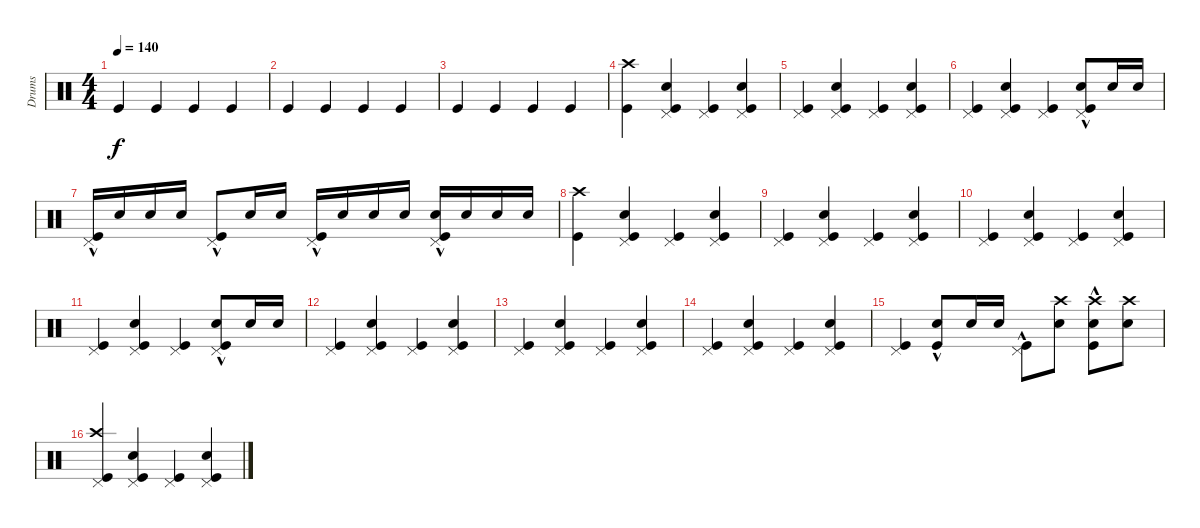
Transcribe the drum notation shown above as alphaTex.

\track ("Drums" "Drums") {instrument percussion}
\staff {score}
\articulation defaults
\ts (4 4)
\tempo 140
\clef neutral
\ks c "Kick (hit)".4{dy f} "Kick (hit)".4 "Kick (hit)".4 "Kick (hit)".4
|
"Kick (hit)".4 "Kick (hit)".4 "Kick (hit)".4 "Kick (hit)".4 |
"Kick (hit)".4 "Kick (hit)".4 "Kick (hit)".4 "Kick (hit)".4 |
("Kick (hit)" "Crash high (hit)").4 ("Kick (hit)" "Pedal Hi-Hat (hit)" "Snare (hit) 2").4 ("Kick (hit)" "Pedal Hi-Hat (hit)").4 ("Kick (hit)" "Pedal Hi-Hat (hit)" "Snare (hit) 2").4 |
("Kick (hit)" "Pedal Hi-Hat (hit)").4 ("Kick (hit)" "Pedal Hi-Hat (hit)" "Snare (hit) 2").4 ("Kick (hit)" "Pedal Hi-Hat (hit)").4 ("Kick (hit)" "Pedal Hi-Hat (hit)" "Snare (hit) 2").4 |
("Kick (hit)" "Pedal Hi-Hat (hit)").4 ("Kick (hit)" "Pedal Hi-Hat (hit)" "Snare (hit) 2").4 ("Kick (hit)" "Pedal Hi-Hat (hit)").4 ("Kick (hit)"{hac} "Pedal Hi-Hat (hit)" "Snare (hit) 2").8 "Snare (hit) 2".16 "Snare (hit) 2".16 |
("Pedal Hi-Hat (hit)" "Kick (hit)"{hac}).16 "Snare (hit) 2".16 "Snare (hit) 2".16 "Snare (hit) 2".16 ("Pedal Hi-Hat (hit)" "Kick (hit)"{hac}).8 "Snare (hit) 2".16 "Snare (hit) 2".16 ("Pedal Hi-Hat (hit)" "Kick (hit)"{hac}).16 "Snare (hit) 2".16 "Snare (hit) 2".16 "Snare (hit) 2".16 ("Snare (hit) 2" "Pedal Hi-Hat (hit)" "Kick (hit)"{hac}).16 "Snare (hit) 2".16 "Snare (hit) 2".16 "Snare (hit) 2".16 |
("Kick (hit)" "Crash high (hit)").4 ("Kick (hit)" "Pedal Hi-Hat (hit)" "Snare (hit) 2").4 ("Kick (hit)" "Pedal Hi-Hat (hit)").4 ("Kick (hit)" "Pedal Hi-Hat (hit)" "Snare (hit) 2").4 |
("Kick (hit)" "Pedal Hi-Hat (hit)").4 ("Kick (hit)" "Pedal Hi-Hat (hit)" "Snare (hit) 2").4 ("Kick (hit)" "Pedal Hi-Hat (hit)").4 ("Kick (hit)" "Pedal Hi-Hat (hit)" "Snare (hit) 2").4 |
("Kick (hit)" "Pedal Hi-Hat (hit)").4 ("Kick (hit)" "Pedal Hi-Hat (hit)" "Snare (hit) 2").4 ("Kick (hit)" "Pedal Hi-Hat (hit)").4 ("Kick (hit)" "Pedal Hi-Hat (hit)" "Snare (hit) 2").4 |
("Kick (hit)" "Pedal Hi-Hat (hit)").4 ("Kick (hit)" "Pedal Hi-Hat (hit)" "Snare (hit) 2").4 ("Kick (hit)" "Pedal Hi-Hat (hit)").4 ("Kick (hit)"{hac} "Pedal Hi-Hat (hit)"{hac} "Snare (hit) 2").8 "Snare (hit) 2".16 "Snare (hit) 2".16 |
("Kick (hit)" "Pedal Hi-Hat (hit)").4 ("Kick (hit)" "Pedal Hi-Hat (hit)" "Snare (hit) 2").4 ("Kick (hit)" "Pedal Hi-Hat (hit)").4 ("Kick (hit)" "Pedal Hi-Hat (hit)" "Snare (hit) 2").4 |
("Kick (hit)" "Pedal Hi-Hat (hit)").4 ("Kick (hit)" "Pedal Hi-Hat (hit)" "Snare (hit) 2").4 ("Kick (hit)" "Pedal Hi-Hat (hit)").4 ("Kick (hit)" "Pedal Hi-Hat (hit)" "Snare (hit) 2").4 |
("Kick (hit)" "Pedal Hi-Hat (hit)").4 ("Kick (hit)" "Pedal Hi-Hat (hit)" "Snare (hit) 2").4 ("Kick (hit)" "Pedal Hi-Hat (hit)").4 ("Kick (hit)" "Pedal Hi-Hat (hit)" "Snare (hit) 2").4 |
("Pedal Hi-Hat (hit)" "Kick (hit)").4 ("Kick (hit)"{hac} "Snare (hit) 2").8 "Snare (hit) 2".16 "Snare (hit) 2".16 ("Kick (hit)"{hac} "Pedal Hi-Hat (hit)").8 ("Crash high (hit)" "Snare (hit) 2").8 ("Kick (hit)"{hac} "Crash high (hit)" "Snare (hit) 2").8 ("Crash high (hit)" "Snare (hit) 2").8 |
("Kick (hit)" "Pedal Hi-Hat (hit)" "Crash high (hit)").4 ("Kick (hit)" "Pedal Hi-Hat (hit)" "Snare (hit) 2").4 ("Kick (hit)" "Pedal Hi-Hat (hit)").4 ("Kick (hit)" "Pedal Hi-Hat (hit)" "Snare (hit) 2").4
